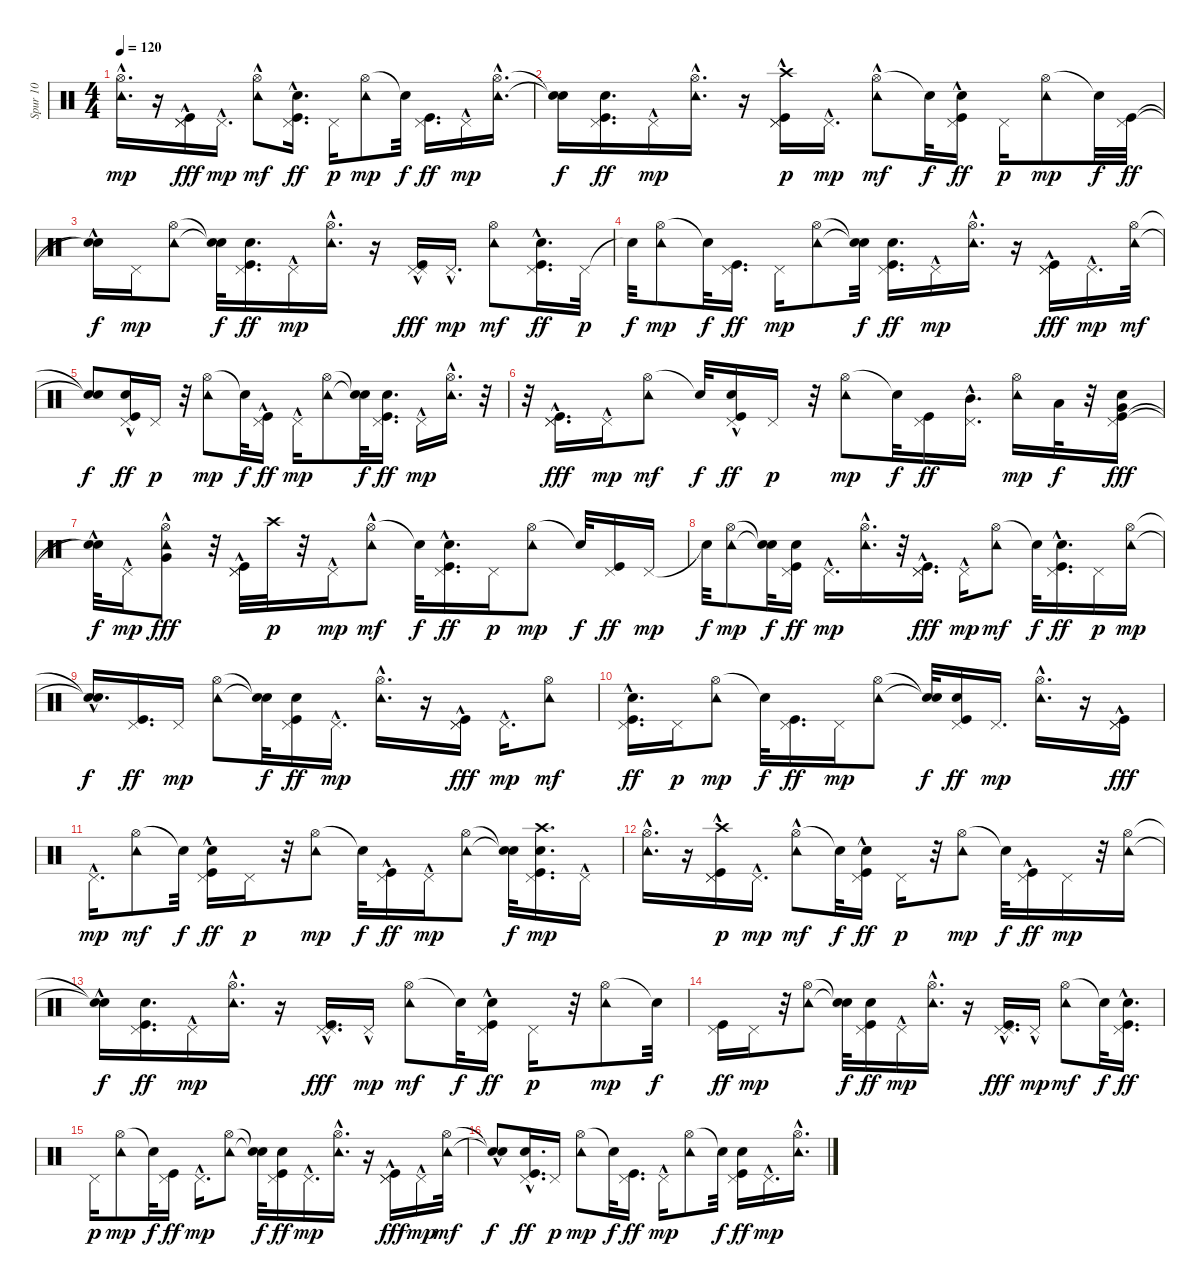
\track ("Spur 10" "Spur 10") {instrument percussion}
\staff {score}
\articulation defaults
\ts (4 4)
\tempo 120
\clef neutral
\ks c
("Hi-Hat (open)" "Tambourine (hit)"{hac}).16{d dy mp} r.16 ("Pedal Hi-Hat (hit)" "Pedal Hi-Hat (hit)" "Kick (hit)"{hac}).16{dy fff} "Pedal Hi-Hat (hit)"{hac}.16{d dy mp} ("Hi-Hat (open)" "Tambourine (hit)"{hac}).8{dy mf} ("Pedal Hi-Hat (hit)" "Kick (hit)" "Snare (hit) 2"{hac}).16{d dy ff} "Pedal Hi-Hat (hit)".16{dy p} ("Hi-Hat (open)" "Tambourine (hit)").8{dy mp} "Snare (hit)"{t}.32{dy f} ("Pedal Hi-Hat (hit)" "Kick (hit)").16{d dy ff} "Pedal Hi-Hat (hit)"{hac}.16{dy mp} ("Hi-Hat (open)"{hac} "Tambourine (hit)"{hac}).16{d} |
("Snare (hit)"{t} "Snare (hit)"{t}).16{dy f} ("Pedal Hi-Hat (hit)" "Kick (hit)" "Snare (hit) 2").16{d dy ff} "Pedal Hi-Hat (hit)"{hac}.16{dy mp} ("Hi-Hat (open)" "Tambourine (hit)"{hac}).16{d} r.16 ("Pedal Hi-Hat (hit)" "Pedal Hi-Hat (hit)" "Kick (hit)"{hac} "Crash high (hit)").16{dy p} "Pedal Hi-Hat (hit)"{hac}.16{d dy mp} ("Hi-Hat (open)" "Tambourine (hit)"{hac}).8{dy mf} "Snare (hit)"{t}.32{dy f} ("Pedal Hi-Hat (hit)" "Kick (hit)"{hac} "Snare (hit) 2"{hac}).16{dy ff} "Pedal Hi-Hat (hit)".16{dy p} ("Hi-Hat (open)" "Tambourine (hit)").8{dy mp} "Snare (hit)"{t}.32{dy f} ("Pedal Hi-Hat (hit)" "Kick (hit)").32{dy ff} |
("Snare (hit)"{t} "Snare (hit)"{hac t}).16{dy f} "Pedal Hi-Hat (hit)".16{dy mp} ("Hi-Hat (open)" "Tambourine (hit)").8 ("Snare (hit)"{t} "Snare (hit)"{t}).32{dy f} ("Pedal Hi-Hat (hit)" "Kick (hit)" "Snare (hit) 2").16{d dy ff} "Pedal Hi-Hat (hit)"{hac}.16{dy mp} ("Hi-Hat (open)" "Tambourine (hit)"{hac}).16{d} r.16 ("Pedal Hi-Hat (hit)" "Pedal Hi-Hat (hit)" "Kick (hit)"{hac}).16{dy fff} "Pedal Hi-Hat (hit)"{hac}.16{d dy mp} ("Hi-Hat (open)" "Tambourine (hit)").8{dy mf} ("Pedal Hi-Hat (hit)" "Kick (hit)" "Snare (hit) 2"{hac}).16{d dy ff} "Pedal Hi-Hat (hit)".32{dy p} |
"Snare (hit)"{t}.32{dy f} ("Hi-Hat (open)" "Tambourine (hit)").8{dy mp} "Snare (hit)"{t}.32{dy f} ("Pedal Hi-Hat (hit)" "Kick (hit)").16{d dy ff} "Pedal Hi-Hat (hit)".16{dy mp} ("Hi-Hat (open)" "Tambourine (hit)").8 ("Snare (hit)"{t} "Snare (hit)"{t}).32{dy f} ("Pedal Hi-Hat (hit)" "Kick (hit)" "Snare (hit) 2").16{d dy ff} "Pedal Hi-Hat (hit)"{hac}.16{dy mp} ("Hi-Hat (open)" "Tambourine (hit)"{hac}).16{d} r.16 ("Pedal Hi-Hat (hit)" "Pedal Hi-Hat (hit)" "Kick (hit)"{hac}).16{dy fff} "Pedal Hi-Hat (hit)"{hac}.16{d dy mp} ("Hi-Hat (open)" "Tambourine (hit)").32{dy mf} |
("Snare (hit)"{t} "Snare (hit)"{t}).8{dy f} ("Pedal Hi-Hat (hit)" "Kick (hit)"{hac} "Snare (hit) 2"{hac}).16{dy ff} "Pedal Hi-Hat (hit)".16{dy p} r.32 ("Hi-Hat (open)" "Tambourine (hit)").8{dy mp} "Snare (hit)"{t}.32{dy f} ("Pedal Hi-Hat (hit)" "Kick (hit)"{hac}).16{dy ff} "Pedal Hi-Hat (hit)"{hac}.16{dy mp} ("Hi-Hat (open)" "Tambourine (hit)").8 ("Snare (hit)"{t} "Snare (hit)"{t}).32{dy f} ("Pedal Hi-Hat (hit)" "Kick (hit)" "Snare (hit) 2").16{d dy ff} "Pedal Hi-Hat (hit)"{hac}.16{dy mp} ("Hi-Hat (open)" "Tambourine (hit)"{hac}).16{d} r.32 |
r.32 ("Pedal Hi-Hat (hit)" "Pedal Hi-Hat (hit)" "Kick (hit)"{hac}).16{d dy fff} "Pedal Hi-Hat (hit)"{hac}.16{dy mp} ("Hi-Hat (open)" "Tambourine (hit)").8{dy mf} "Snare (hit)"{t}.32{dy f} ("Pedal Hi-Hat (hit)" "Kick (hit)"{hac} "Snare (hit) 2"{hac}).16{dy ff} "Pedal Hi-Hat (hit)".16{dy p} r.32 ("Hi-Hat (open)" "Tambourine (hit)").8{dy mp} "Snare (hit)"{t}.32{dy f} ("Pedal Hi-Hat (hit)" "Kick (hit)").16{dy ff} ("Pedal Hi-Hat (hit)"{hac} "Mid Tom (hit)").16{d} ("Hi-Hat (open)" "Tambourine (hit)").16{dy mp} "Low Tom (hit)".32{dy f} r.32 ("Pedal Hi-Hat (hit)" "Kick (hit)" "Snare (hit) 2" "Very Low Tom (hit)").16{dy fff} |
("Snare (hit)"{hac t} "Snare (hit)"{hac t}).32{dy f} "Pedal Hi-Hat (hit)"{hac}.16{dy mp} ("Hi-Hat (open)" "Tambourine (hit)"{hac} "Very Low Tom (hit)").8{dy fff} r.32 ("Pedal Hi-Hat (hit)" "Pedal Hi-Hat (hit)" "Kick (hit)"{hac}).32 "Crash high (hit)".32{dy p} r.32 "Pedal Hi-Hat (hit)"{hac}.16{dy mp} ("Hi-Hat (open)" "Tambourine (hit)"{hac}).8{dy mf} "Snare (hit)"{t}.32{dy f} ("Pedal Hi-Hat (hit)" "Kick (hit)" "Snare (hit) 2"{hac}).16{d dy ff} "Pedal Hi-Hat (hit)".16{dy p} ("Hi-Hat (open)" "Tambourine (hit)").8{dy mp} "Snare (hit)"{t}.32{dy f} ("Pedal Hi-Hat (hit)" "Kick (hit)").16{dy ff} "Pedal Hi-Hat (hit)".16{dy mp} |
"Snare (hit)"{t}.32{dy f} ("Hi-Hat (open)" "Tambourine (hit)").8{dy mp} ("Snare (hit)"{t} "Snare (hit)"{t}).32{dy f} ("Pedal Hi-Hat (hit)" "Kick (hit)" "Snare (hit) 2").16{dy ff} "Pedal Hi-Hat (hit)"{hac}.16{d dy mp} ("Hi-Hat (open)" "Tambourine (hit)"{hac}).16{d} r.32 ("Pedal Hi-Hat (hit)" "Pedal Hi-Hat (hit)" "Kick (hit)"{hac}).16{d dy fff} "Pedal Hi-Hat (hit)"{hac}.16{dy mp} ("Hi-Hat (open)" "Tambourine (hit)").8{dy mf} "Snare (hit)"{t}.32{dy f} ("Pedal Hi-Hat (hit)" "Kick (hit)"{hac} "Snare (hit) 2"{hac}).16{d dy ff} "Pedal Hi-Hat (hit)".16{dy p} ("Hi-Hat (open)" "Tambourine (hit)").16{dy mp} |
("Snare (hit)"{hac t} "Snare (hit)"{t}).16{d dy f} ("Pedal Hi-Hat (hit)" "Kick (hit)").16{d dy ff} "Pedal Hi-Hat (hit)".16{dy mp} ("Hi-Hat (open)" "Tambourine (hit)").8 ("Snare (hit)"{t} "Snare (hit)"{t}).32{dy f} ("Pedal Hi-Hat (hit)" "Kick (hit)" "Snare (hit) 2").16{dy ff} "Pedal Hi-Hat (hit)"{hac}.16{d dy mp} ("Hi-Hat (open)" "Tambourine (hit)"{hac}).16{d} r.16 ("Pedal Hi-Hat (hit)" "Pedal Hi-Hat (hit)" "Kick (hit)"{hac}).16{dy fff} "Pedal Hi-Hat (hit)"{hac}.16{d dy mp} ("Hi-Hat (open)" "Tambourine (hit)").8{dy mf} |
("Pedal Hi-Hat (hit)" "Kick (hit)"{hac} "Snare (hit) 2"{hac}).16{d dy ff} "Pedal Hi-Hat (hit)".16{dy p} ("Hi-Hat (open)" "Tambourine (hit)").8{dy mp} "Snare (hit)"{t}.32{dy f} ("Pedal Hi-Hat (hit)" "Kick (hit)").16{d dy ff} "Pedal Hi-Hat (hit)".16{dy mp} ("Hi-Hat (open)" "Tambourine (hit)").8 ("Snare (hit)"{t} "Snare (hit)"{t}).32{dy f} ("Pedal Hi-Hat (hit)" "Kick (hit)" "Snare (hit) 2").16{dy ff} "Pedal Hi-Hat (hit)".16{d dy mp} ("Hi-Hat (open)" "Tambourine (hit)"{hac}).16{d} r.16 ("Pedal Hi-Hat (hit)" "Pedal Hi-Hat (hit)" "Kick (hit)"{hac}).16{dy fff} |
"Pedal Hi-Hat (hit)"{hac}.16{d dy mp} ("Hi-Hat (open)" "Tambourine (hit)").8{dy mf} "Snare (hit)"{t}.32{dy f} ("Pedal Hi-Hat (hit)" "Kick (hit)"{hac} "Snare (hit) 2"{hac}).16{dy ff} "Pedal Hi-Hat (hit)".16{dy p} r.32 ("Hi-Hat (open)" "Tambourine (hit)").8{dy mp} "Snare (hit)"{t}.32{dy f} ("Pedal Hi-Hat (hit)" "Kick (hit)"{hac}).16{dy ff} "Pedal Hi-Hat (hit)"{hac}.16{dy mp} ("Hi-Hat (open)" "Tambourine (hit)").8 ("Snare (hit)"{t} "Snare (hit)"{t}).32{dy f} ("Pedal Hi-Hat (hit)" "Kick (hit)" "Snare (hit) 2" "Crash high (hit)").16{d dy mp} "Pedal Hi-Hat (hit)"{hac}.16 |
("Hi-Hat (open)" "Tambourine (hit)"{hac}).16{d} r.16 ("Pedal Hi-Hat (hit)" "Pedal Hi-Hat (hit)" "Kick (hit)"{hac} "Crash high (hit)").16{dy p} "Pedal Hi-Hat (hit)"{hac}.16{d dy mp} ("Hi-Hat (open)" "Tambourine (hit)"{hac}).8{dy mf} "Snare (hit)"{t}.32{dy f} ("Pedal Hi-Hat (hit)" "Kick (hit)" "Snare (hit) 2"{hac}).16{dy ff} "Pedal Hi-Hat (hit)".16{dy p} r.32 ("Hi-Hat (open)" "Tambourine (hit)").8{dy mp} "Snare (hit)"{t}.32{dy f} ("Pedal Hi-Hat (hit)" "Kick (hit)"{hac}).16{dy ff} "Pedal Hi-Hat (hit)".16{dy mp} r.32 ("Hi-Hat (open)" "Tambourine (hit)").16 |
("Snare (hit)"{hac t} "Snare (hit)"{hac t}).16{dy f} ("Pedal Hi-Hat (hit)" "Kick (hit)" "Snare (hit) 2").16{d dy ff} "Pedal Hi-Hat (hit)"{hac}.16{dy mp} ("Hi-Hat (open)" "Tambourine (hit)"{hac}).16{d} r.16 ("Pedal Hi-Hat (hit)" "Pedal Hi-Hat (hit)" "Kick (hit)"{hac}).16{d dy fff} "Pedal Hi-Hat (hit)"{hac}.16{dy mp} ("Hi-Hat (open)" "Tambourine (hit)").8{dy mf} "Snare (hit)"{t}.32{dy f} ("Pedal Hi-Hat (hit)" "Kick (hit)" "Snare (hit) 2"{hac}).16{dy ff} "Pedal Hi-Hat (hit)".16{dy p} r.32 ("Hi-Hat (open)" "Tambourine (hit)").8{dy mp} "Snare (hit)"{t}.32{dy f} |
("Pedal Hi-Hat (hit)" "Kick (hit)").16{dy ff} "Pedal Hi-Hat (hit)".16{dy mp} r.32 ("Hi-Hat (open)" "Tambourine (hit)").8 ("Snare (hit)"{t} "Snare (hit)"{t}).32{dy f} ("Pedal Hi-Hat (hit)" "Kick (hit)" "Snare (hit) 2").16{dy ff} "Pedal Hi-Hat (hit)"{hac}.16{dy mp} ("Hi-Hat (open)" "Tambourine (hit)"{hac}).16{d} r.16 ("Pedal Hi-Hat (hit)" "Pedal Hi-Hat (hit)" "Kick (hit)"{hac}).16{d dy fff} "Pedal Hi-Hat (hit)"{hac}.16{dy mp} ("Hi-Hat (open)" "Tambourine (hit)").8{dy mf} "Snare (hit)"{t}.32{dy f} ("Pedal Hi-Hat (hit)" "Kick (hit)"{hac} "Snare (hit) 2"{hac}).16{d dy ff} |
"Pedal Hi-Hat (hit)".16{dy p} ("Hi-Hat (open)" "Tambourine (hit)").8{dy mp} "Snare (hit)"{t}.32{dy f} ("Pedal Hi-Hat (hit)" "Kick (hit)").16{dy ff} "Pedal Hi-Hat (hit)"{hac}.16{d dy mp} ("Hi-Hat (open)" "Tambourine (hit)").8 ("Snare (hit)"{t} "Snare (hit)"{t}).32{dy f} ("Pedal Hi-Hat (hit)" "Kick (hit)" "Snare (hit) 2").16{dy ff} "Pedal Hi-Hat (hit)"{hac}.16{d dy mp} ("Hi-Hat (open)" "Tambourine (hit)"{hac}).16{d} r.16 ("Pedal Hi-Hat (hit)" "Pedal Hi-Hat (hit)" "Kick (hit)"{hac}).16{dy fff} "Pedal Hi-Hat (hit)"{hac}.16{dy mp} ("Hi-Hat (open)" "Tambourine (hit)").32{dy mf} |
("Snare (hit)"{t} "Snare (hit)"{hac t}).8{dy f} ("Pedal Hi-Hat (hit)" "Kick (hit)" "Snare (hit) 2"{hac}).16{d dy ff} "Pedal Hi-Hat (hit)".16{dy p} ("Hi-Hat (open)" "Tambourine (hit)").8{dy mp} "Snare (hit)"{t}.32{dy f} ("Pedal Hi-Hat (hit)" "Kick (hit)").16{d dy ff} "Pedal Hi-Hat (hit)"{hac}.16{dy mp} ("Hi-Hat (open)" "Tambourine (hit)").8 "Snare (hit)"{t}.32{dy f} ("Pedal Hi-Hat (hit)" "Kick (hit)" "Snare (hit) 2").16{dy ff} "Pedal Hi-Hat (hit)"{hac}.16{d dy mp} ("Hi-Hat (open)" "Tambourine (hit)"{hac}).16{d}
